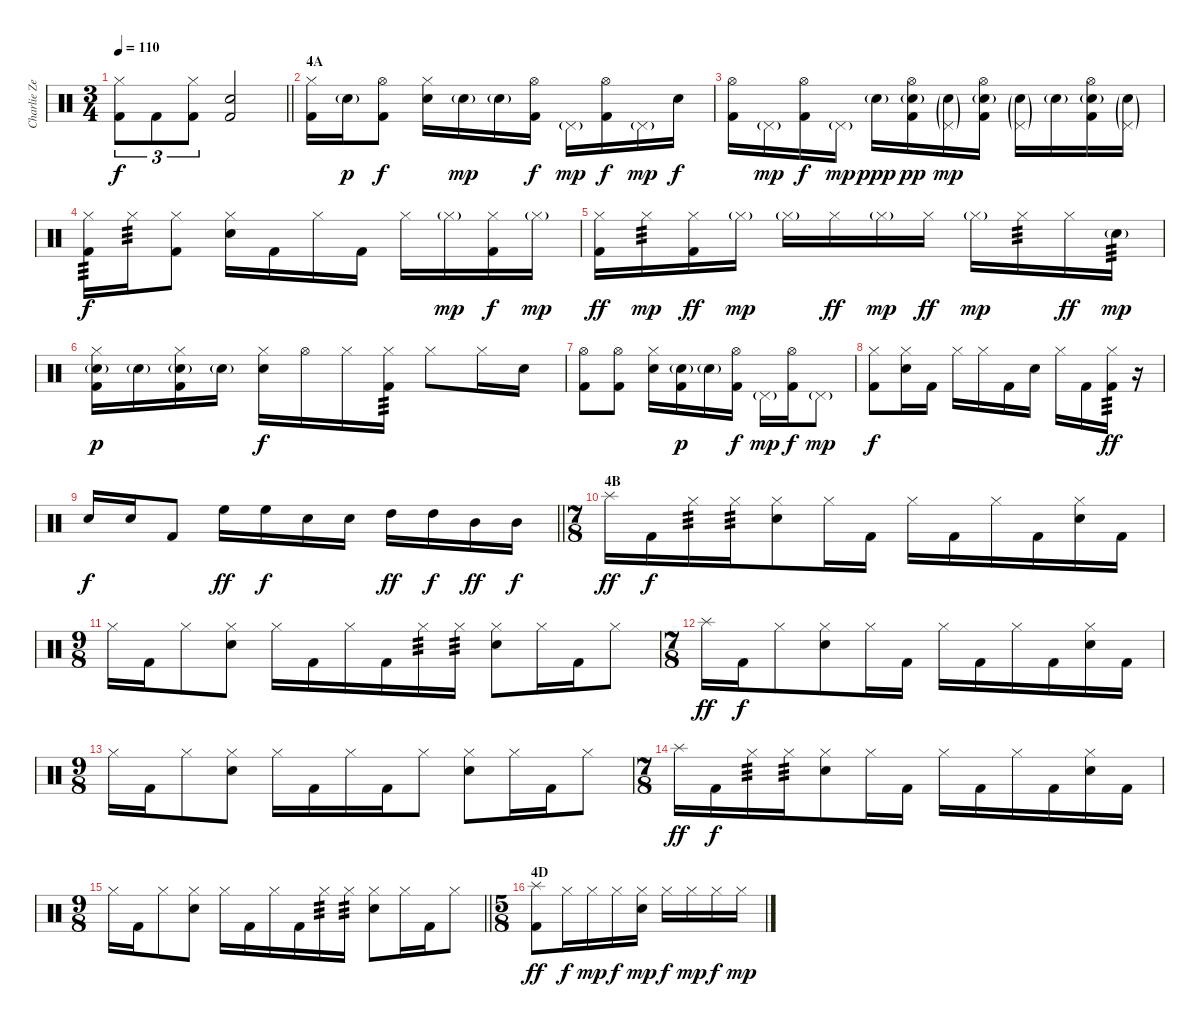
\track ("Charlie Zeleny - Drums" "Charlie Ze") {instrument percussion}
\staff {score}
\articulation defaults
\ts (3 4)
\tempo 110
\clef neutral
\barLineRight lightlight
\ks c
("Hi-Hat (closed)" "Kick (hit) 2").8{tu (3 2) dy f} "Kick (hit) 2".8{tu (3 2)} ("Hi-Hat (closed)" "Kick (hit) 2").8{tu (3 2)} ("Electric Snare (hit)" "Kick (hit) 2").2{bd 120} |
\section ("" "4A")
("Hi-Hat (closed)" "Kick (hit) 2").16 "Electric Snare (hit)"{g}.16{dy p} ("Hi-Hat (open)" "Kick (hit) 2").8{dy f} ("Hi-Hat (closed)" "Electric Snare (hit)").16 "Electric Snare (hit)"{g}.16{dy mp} "Electric Snare (hit)"{g}.16 ("Hi-Hat (open)" "Kick (hit) 2").16{dy f} "Pedal Hi-Hat (hit)"{g}.16{dy mp} ("Hi-Hat (open)" "Kick (hit) 2").16{dy f} "Pedal Hi-Hat (hit)"{g}.16{dy mp} "Electric Snare (hit)".16{dy f} |
("Hi-Hat (open)" "Kick (hit) 2").16 "Pedal Hi-Hat (hit)"{g}.16{dy mp} ("Hi-Hat (open)" "Kick (hit) 2").16{dy f} "Pedal Hi-Hat (hit)"{g}.16{dy mp} "Electric Snare (hit)"{g}.16{dy ppp} ("Hi-Hat (open)" "Electric Snare (hit)"{g} "Kick (hit) 2").16{dy pp} ("Electric Snare (hit)"{g} "Pedal Hi-Hat (hit)"{g}).16{dy mp} ("Hi-Hat (open)" "Electric Snare (hit)"{g} "Kick (hit) 2").16 ("Electric Snare (hit)"{g} "Pedal Hi-Hat (hit)"{g}).16 "Electric Snare (hit)"{g}.16 ("Hi-Hat (open)" "Electric Snare (hit)"{g} "Kick (hit) 2").16 ("Electric Snare (hit)"{g} "Pedal Hi-Hat (hit)"{g}).16 |
("Hi-Hat (closed)" "Kick (hit) 2").16{tp 3 dy f} "Hi-Hat (closed)".16{tp 3} ("Hi-Hat (closed)" "Kick (hit) 2").8 ("Hi-Hat (closed)" "Electric Snare (hit)").16 "Kick (hit) 2".16 "Hi-Hat (closed)".16 "Kick (hit) 2".16 "Hi-Hat (closed)".16 "Hi-Hat (closed)"{g}.16{dy mp} ("Hi-Hat (closed)" "Kick (hit) 2").16{dy f} "Hi-Hat (closed)"{g}.16{dy mp} |
("Hi-Hat (closed)" "Kick (hit) 2").16{dy ff} "Hi-Hat (closed)".16{tp 3 dy mp} ("Hi-Hat (closed)" "Kick (hit) 2").16{dy ff} "Hi-Hat (closed)"{g}.16{dy mp} "Hi-Hat (closed)"{g}.16 "Hi-Hat (closed)".16{dy ff} "Hi-Hat (closed)"{g}.16{dy mp} "Hi-Hat (closed)".16{dy ff} "Hi-Hat (closed)"{g}.16{dy mp} "Hi-Hat (closed)".16{tp 3} "Hi-Hat (closed)".16{dy ff} "Electric Snare (hit)"{g}.16{tp 3 dy mp} |
("Hi-Hat (closed)" "Electric Snare (hit)"{g} "Kick (hit) 2").16{dy p} "Electric Snare (hit)"{g}.16 ("Hi-Hat (closed)" "Electric Snare (hit)"{g} "Kick (hit) 2").16 "Electric Snare (hit)"{g}.16 ("Hi-Hat (closed)" "Electric Snare (hit)").16{dy f} "Hi-Hat (open)".16 "Hi-Hat (closed)".16 ("Hi-Hat (closed)" "Kick (hit) 2").16{tp 3} "Hi-Hat (closed)".8 "Hi-Hat (closed)".16 "Electric Snare (hit)".16 |
("Hi-Hat (open)" "Kick (hit) 2").8 ("Hi-Hat (open)" "Kick (hit) 2").8 ("Hi-Hat (closed)" "Electric Snare (hit)").16 ("Electric Snare (hit)"{g} "Kick (hit) 2").16{dy p} "Electric Snare (hit)"{g}.16 ("Hi-Hat (open)" "Kick (hit) 2").16{dy f} "Pedal Hi-Hat (hit)"{g}.16{dy mp} ("Hi-Hat (open)" "Kick (hit) 2").16{dy f} "Pedal Hi-Hat (hit)"{g}.8{dy mp} |
("Hi-Hat (closed)" "Kick (hit) 2").8{dy f} ("Hi-Hat (closed)" "Electric Snare (hit)").16 "Kick (hit) 2".16 "Hi-Hat (closed)".16 "Hi-Hat (closed)".16 "Kick (hit) 2".16 "Electric Snare (hit)".16 "Hi-Hat (closed)".16 "Kick (hit) 2".16 ("Hi-Hat (closed)" "Kick (hit) 2").16{tp 3 dy ff} r.16 |
\barLineRight lightlight "Electric Snare (hit)".16{dy f} "Electric Snare (hit)".16 "Kick (hit) 2".8 "High Floor Tom (hit)".16{dy ff} "High Floor Tom (hit)".16{dy f} "Electric Snare (hit)".16 "Electric Snare (hit)".16 "High Tom (hit)".16{dy ff} "High Tom (hit)".16{dy f} "Mid Tom (hit)".16{dy ff} "Mid Tom (hit)".16{dy f}
|
\ts (7 8)
\section ("" "4B")
"Splash (hit)".16{dy ff} "Kick (hit) 2".16{dy f} "Hi-Hat (closed)".16{tp 3} "Hi-Hat (closed)".16{tp 3} ("Hi-Hat (closed)" "Electric Snare (hit)").8 "Hi-Hat (closed)".16 "Kick (hit) 2".16 "Hi-Hat (closed)".16 "Kick (hit) 2".16 "Hi-Hat (closed)".16 "Kick (hit) 2".16 ("Hi-Hat (closed)" "Electric Snare (hit)").16 "Kick (hit) 2".16 |
\ts (9 8)
"Hi-Hat (closed)".16 "Kick (hit) 2".16 "Hi-Hat (closed)".8 ("Hi-Hat (closed)" "Electric Snare (hit)").8 "Hi-Hat (closed)".16 "Kick (hit) 2".16 "Hi-Hat (closed)".16 "Kick (hit) 2".16 "Hi-Hat (closed)".16{tp 3} "Hi-Hat (closed)".16{tp 3} ("Hi-Hat (closed)" "Electric Snare (hit)").8 "Hi-Hat (closed)".16 "Kick (hit) 2".16 "Hi-Hat (closed)".8 |
\ts (7 8)
"Splash (hit)".16{dy ff} "Kick (hit) 2".16{dy f} "Hi-Hat (closed)".8 ("Hi-Hat (closed)" "Electric Snare (hit)").8 "Hi-Hat (closed)".16 "Kick (hit) 2".16 "Hi-Hat (closed)".16 "Kick (hit) 2".16 "Hi-Hat (closed)".16 "Kick (hit) 2".16 ("Hi-Hat (closed)" "Electric Snare (hit)").16 "Kick (hit) 2".16 |
\ts (9 8)
"Hi-Hat (closed)".16 "Kick (hit) 2".16 "Hi-Hat (closed)".8 ("Hi-Hat (closed)" "Electric Snare (hit)").8 "Hi-Hat (closed)".16 "Kick (hit) 2".16 "Hi-Hat (closed)".16 "Kick (hit) 2".16 "Hi-Hat (closed)".8 ("Hi-Hat (closed)" "Electric Snare (hit)").8 "Hi-Hat (closed)".16 "Kick (hit) 2".16 "Hi-Hat (closed)".8 |
\ts (7 8)
"Splash (hit)".16{dy ff} "Kick (hit) 2".16{dy f} "Hi-Hat (closed)".16{tp 3} "Hi-Hat (closed)".16{tp 3} ("Hi-Hat (closed)" "Electric Snare (hit)").8 "Hi-Hat (closed)".16 "Kick (hit) 2".16 "Hi-Hat (closed)".16 "Kick (hit) 2".16 "Hi-Hat (closed)".16 "Kick (hit) 2".16 ("Hi-Hat (closed)" "Electric Snare (hit)").16 "Kick (hit) 2".16 |
\ts (9 8)
\barLineRight lightlight "Hi-Hat (closed)".16 "Kick (hit) 2".16 "Hi-Hat (closed)".8
("Hi-Hat (closed)" "Electric Snare (hit)").8 "Hi-Hat (closed)".16 "Kick (hit) 2".16 "Hi-Hat (closed)".16 "Kick (hit) 2".16 "Hi-Hat (closed)".16{tp 3} "Hi-Hat (closed)".16{tp 3} ("Hi-Hat (closed)" "Electric Snare (hit)").8 "Hi-Hat (closed)".16 "Kick (hit) 2".16 "Hi-Hat (closed)".8 |
\ts (5 8)
\section ("" "4D")
("Splash (hit)" "Kick (hit) 2").8{dy ff} "Hi-Hat (closed)".16{dy f} "Hi-Hat (closed)".16{dy mp} "Hi-Hat (closed)".16{dy f} ("Hi-Hat (closed)" "Electric Snare (hit)").16{dy mp} "Hi-Hat (closed)".16{dy f} "Hi-Hat (closed)".16{dy mp} "Hi-Hat (closed)".16{dy f} "Hi-Hat (closed)".16{dy mp}
